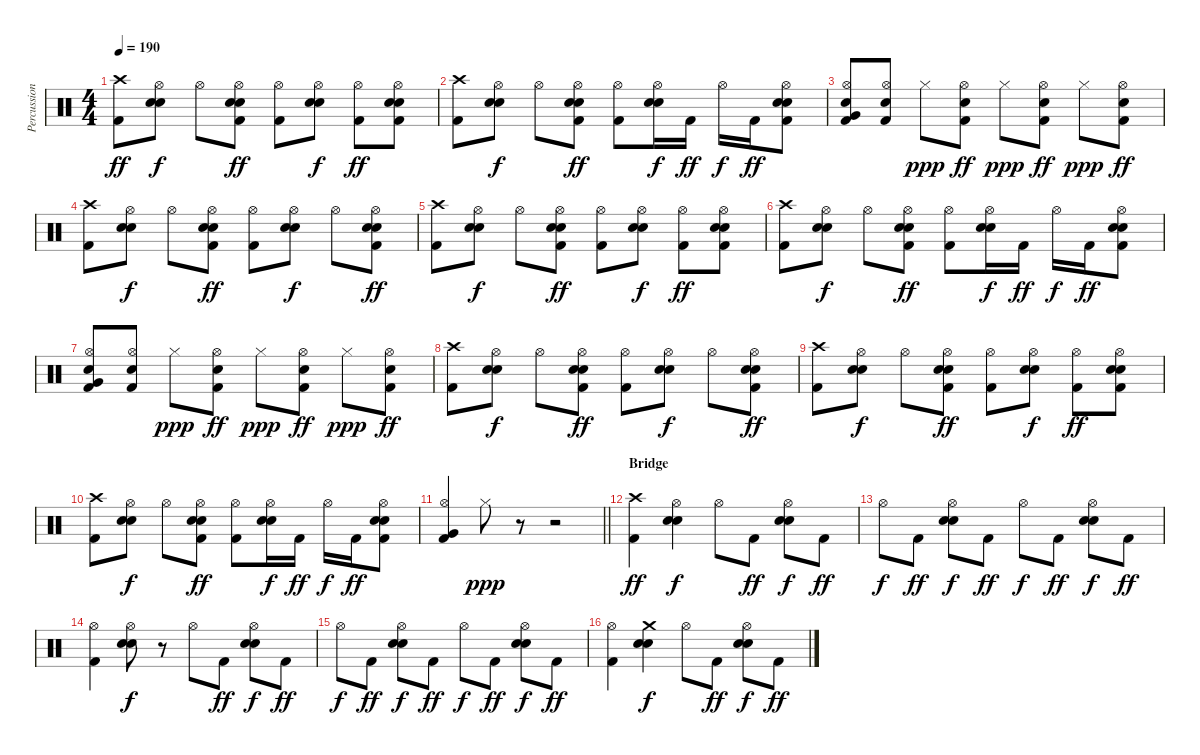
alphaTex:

\track ("Percussion" "Percussion") {instrument percussion}
\staff {score}
\articulation defaults
\ts (4 4)
\tempo 190
\clef neutral
\ks c
("Crash high (hit)" "Kick (hit) 2").8{dy ff} ("Hi-Hat (open)" "Electric Snare (hit)" "Snare (hit) 2").8{dy f} "Hi-Hat (open)".8 ("Hi-Hat (open)" "Electric Snare (hit)" "Snare (hit) 2" "Kick (hit) 2").8{dy ff} ("Hi-Hat (open)" "Kick (hit) 2").8 ("Hi-Hat (open)" "Electric Snare (hit)" "Snare (hit) 2").8{dy f} ("Hi-Hat (open)" "Kick (hit) 2").8{dy ff} ("Hi-Hat (open)" "Electric Snare (hit)" "Snare (hit) 2" "Kick (hit) 2").8 |
("Crash high (hit)" "Kick (hit) 2").8 ("Hi-Hat (open)" "Electric Snare (hit)" "Snare (hit) 2").8{dy f} "Hi-Hat (open)".8 ("Hi-Hat (open)" "Electric Snare (hit)" "Snare (hit) 2" "Kick (hit) 2").8{dy ff} ("Hi-Hat (open)" "Kick (hit) 2").8 ("Hi-Hat (open)" "Electric Snare (hit)" "Snare (hit) 2").16{dy f} "Kick (hit) 2".16{dy ff} "Hi-Hat (open)".16{dy f} "Kick (hit) 2".16{dy ff} ("Hi-Hat (open)" "Electric Snare (hit)" "Snare (hit) 2" "Kick (hit) 2").8 |
("Hi-Hat (open)" "Electric Snare (hit)" "Very Low Tom (hit)" "Kick (hit) 2").8 ("Hi-Hat (open)" "Snare (hit) 2" "Kick (hit) 2").8 "Hi-Hat (closed)".8{dy ppp} ("Hi-Hat (open)" "Snare (hit) 2" "Kick (hit) 2").8{dy ff} "Hi-Hat (closed)".8{dy ppp} ("Hi-Hat (open)" "Snare (hit) 2" "Kick (hit) 2").8{dy ff} "Hi-Hat (closed)".8{dy ppp} ("Hi-Hat (open)" "Snare (hit) 2" "Kick (hit) 2").8{dy ff} |
("Crash high (hit)" "Kick (hit) 2").8 ("Hi-Hat (open)" "Electric Snare (hit)" "Snare (hit) 2").8{dy f} "Hi-Hat (open)".8 ("Hi-Hat (open)" "Electric Snare (hit)" "Snare (hit) 2" "Kick (hit) 2").8{dy ff} ("Hi-Hat (open)" "Kick (hit) 2").8 ("Hi-Hat (open)" "Electric Snare (hit)" "Snare (hit) 2").8{dy f} "Hi-Hat (open)".8 ("Hi-Hat (open)" "Electric Snare (hit)" "Snare (hit) 2" "Kick (hit) 2").8{dy ff} |
("Crash high (hit)" "Kick (hit) 2").8 ("Hi-Hat (open)" "Electric Snare (hit)" "Snare (hit) 2").8{dy f} "Hi-Hat (open)".8 ("Hi-Hat (open)" "Electric Snare (hit)" "Snare (hit) 2" "Kick (hit) 2").8{dy ff} ("Hi-Hat (open)" "Kick (hit) 2").8 ("Hi-Hat (open)" "Electric Snare (hit)" "Snare (hit) 2").8{dy f} ("Hi-Hat (open)" "Kick (hit) 2").8{dy ff} ("Hi-Hat (open)" "Electric Snare (hit)" "Snare (hit) 2" "Kick (hit) 2").8 |
("Crash high (hit)" "Kick (hit) 2").8 ("Hi-Hat (open)" "Electric Snare (hit)" "Snare (hit) 2").8{dy f} "Hi-Hat (open)".8 ("Hi-Hat (open)" "Electric Snare (hit)" "Snare (hit) 2" "Kick (hit) 2").8{dy ff} ("Hi-Hat (open)" "Kick (hit) 2").8 ("Hi-Hat (open)" "Electric Snare (hit)" "Snare (hit) 2").16{dy f} "Kick (hit) 2".16{dy ff} "Hi-Hat (open)".16{dy f} "Kick (hit) 2".16{dy ff} ("Hi-Hat (open)" "Electric Snare (hit)" "Snare (hit) 2" "Kick (hit) 2").8 |
("Hi-Hat (open)" "Electric Snare (hit)" "Very Low Tom (hit)" "Kick (hit) 2").8 ("Hi-Hat (open)" "Snare (hit) 2" "Kick (hit) 2").8 "Hi-Hat (closed)".8{dy ppp} ("Hi-Hat (open)" "Snare (hit) 2" "Kick (hit) 2").8{dy ff} "Hi-Hat (closed)".8{dy ppp} ("Hi-Hat (open)" "Snare (hit) 2" "Kick (hit) 2").8{dy ff} "Hi-Hat (closed)".8{dy ppp} ("Hi-Hat (open)" "Snare (hit) 2" "Kick (hit) 2").8{dy ff} |
("Crash high (hit)" "Kick (hit) 2").8 ("Hi-Hat (open)" "Electric Snare (hit)" "Snare (hit) 2").8{dy f} "Hi-Hat (open)".8 ("Hi-Hat (open)" "Electric Snare (hit)" "Snare (hit) 2" "Kick (hit) 2").8{dy ff} ("Hi-Hat (open)" "Kick (hit) 2").8 ("Hi-Hat (open)" "Electric Snare (hit)" "Snare (hit) 2").8{dy f} "Hi-Hat (open)".8 ("Hi-Hat (open)" "Electric Snare (hit)" "Snare (hit) 2" "Kick (hit) 2").8{dy ff} |
("Crash high (hit)" "Kick (hit) 2").8 ("Hi-Hat (open)" "Electric Snare (hit)" "Snare (hit) 2").8{dy f} "Hi-Hat (open)".8 ("Hi-Hat (open)" "Electric Snare (hit)" "Snare (hit) 2" "Kick (hit) 2").8{dy ff} ("Hi-Hat (open)" "Kick (hit) 2").8 ("Hi-Hat (open)" "Electric Snare (hit)" "Snare (hit) 2").8{dy f} ("Hi-Hat (open)" "Kick (hit) 2").8{dy ff} ("Hi-Hat (open)" "Electric Snare (hit)" "Snare (hit) 2" "Kick (hit) 2").8 |
("Crash high (hit)" "Kick (hit) 2").8 ("Hi-Hat (open)" "Electric Snare (hit)" "Snare (hit) 2").8{dy f} "Hi-Hat (open)".8 ("Hi-Hat (open)" "Electric Snare (hit)" "Snare (hit) 2" "Kick (hit) 2").8{dy ff} ("Hi-Hat (open)" "Kick (hit) 2").8 ("Hi-Hat (open)" "Electric Snare (hit)" "Snare (hit) 2").16{dy f} "Kick (hit) 2".16{dy ff} "Hi-Hat (open)".16{dy f} "Kick (hit) 2".16{dy ff} ("Hi-Hat (open)" "Electric Snare (hit)" "Snare (hit) 2" "Kick (hit) 2").8 |
\barLineRight lightlight
("Hi-Hat (open)" "Very Low Tom (hit)" "Kick (hit) 2").4 "Hi-Hat (closed)".8{dy ppp} r.8 r.2 |
\section ("" "Bridge")
("Crash high (hit)" "Kick (hit) 2").4{dy ff} ("Hi-Hat (open)" "Electric Snare (hit)" "Snare (hit) 2").4{dy f} "Hi-Hat (open)".8 "Kick (hit) 2".8{dy ff} ("Hi-Hat (open)" "Electric Snare (hit)" "Snare (hit) 2").8{dy f} "Kick (hit) 2".8{dy ff} |
"Hi-Hat (open)".8{dy f} "Kick (hit) 2".8{dy ff} ("Hi-Hat (open)" "Electric Snare (hit)" "Snare (hit) 2").8{dy f} "Kick (hit) 2".8{dy ff} "Hi-Hat (open)".8{dy f} "Kick (hit) 2".8{dy ff} ("Hi-Hat (open)" "Electric Snare (hit)" "Snare (hit) 2").8{dy f} "Kick (hit) 2".8{dy ff} |
("Hi-Hat (open)" "Kick (hit) 2").4 ("Hi-Hat (open)" "Electric Snare (hit)" "Snare (hit) 2").8{dy f} r.8 "Hi-Hat (open)".8 "Kick (hit) 2".8{dy ff} ("Hi-Hat (open)" "Electric Snare (hit)" "Snare (hit) 2").8{dy f} "Kick (hit) 2".8{dy ff} |
"Hi-Hat (open)".8{dy f} "Kick (hit) 2".8{dy ff} ("Hi-Hat (open)" "Electric Snare (hit)" "Snare (hit) 2").8{dy f} "Kick (hit) 2".8{dy ff} "Hi-Hat (open)".8{dy f} "Kick (hit) 2".8{dy ff} ("Hi-Hat (open)" "Electric Snare (hit)" "Snare (hit) 2").8{dy f} "Kick (hit) 2".8{dy ff} |
("Hi-Hat (open)" "Kick (hit) 2").4 ("Crash medium (hit)" "Electric Snare (hit)" "Snare (hit) 2").4{dy f} "Hi-Hat (open)".8 "Kick (hit) 2".8{dy ff} ("Hi-Hat (open)" "Electric Snare (hit)" "Snare (hit) 2").8{dy f} "Kick (hit) 2".8{dy ff}
